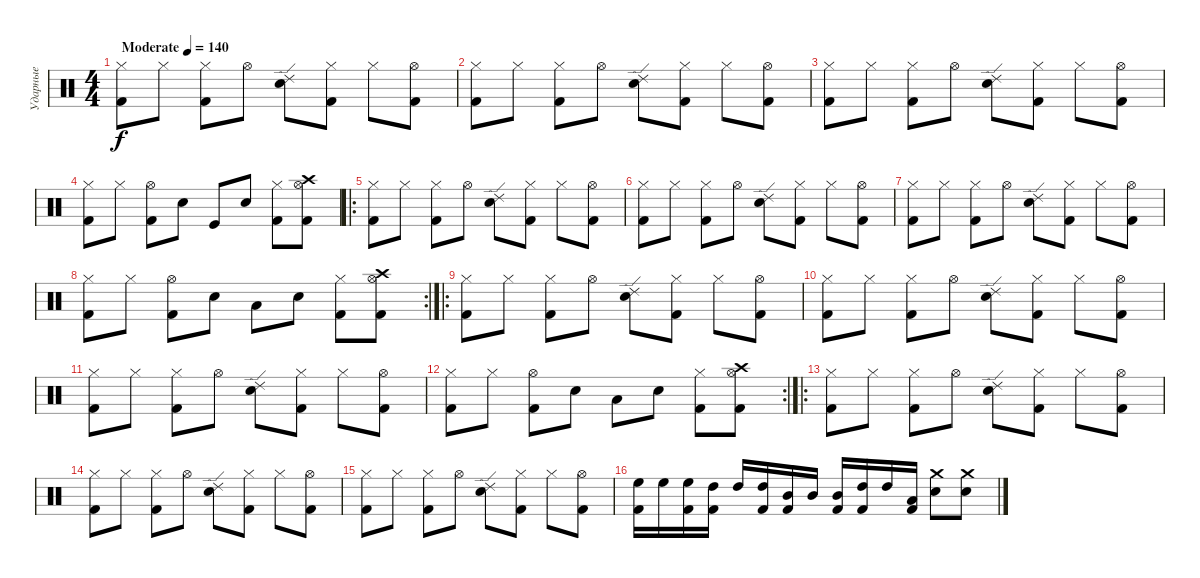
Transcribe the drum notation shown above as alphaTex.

\track ("Ударные" "Ударные") {instrument percussion}
\staff {score}
\articulation defaults
\ts (4 4)
\tempo (140 "Moderate")
\clef neutral
\ks c
("Hi-Hat (closed)" "Kick (hit) 2").8{dy f} "Hi-Hat (closed)".8 ("Hi-Hat (closed)" "Kick (hit) 2").8 "Hi-Hat (open)".8 ("Ride (edge) 2" "Snare (hit) 2").8 ("Hi-Hat (closed)" "Kick (hit) 2").8 "Hi-Hat (closed)".8 ("Hi-Hat (open)" "Kick (hit) 2").8 |
("Hi-Hat (closed)" "Kick (hit) 2").8 "Hi-Hat (closed)".8 ("Hi-Hat (closed)" "Kick (hit) 2").8 "Hi-Hat (open)".8 ("Ride (edge) 2" "Snare (hit) 2").8 ("Hi-Hat (closed)" "Kick (hit) 2").8 "Hi-Hat (closed)".8 ("Hi-Hat (open)" "Kick (hit) 2").8 |
("Hi-Hat (closed)" "Kick (hit) 2").8 "Hi-Hat (closed)".8 ("Hi-Hat (closed)" "Kick (hit) 2").8 "Hi-Hat (open)".8 ("Ride (edge) 2" "Snare (hit) 2").8 ("Hi-Hat (closed)" "Kick (hit) 2").8 "Hi-Hat (closed)".8 ("Hi-Hat (open)" "Kick (hit) 2").8 |
("Hi-Hat (closed)" "Kick (hit) 2").8 "Hi-Hat (closed)".8 ("Hi-Hat (open)" "Kick (hit) 2").8 "Snare (hit) 2".8 "Kick (hit)".8 "Electric Snare (hit)".8 ("Hi-Hat (closed)" "Kick (hit) 2").8 ("Hi-Hat (open)" "Crash high (hit)" "Kick (hit) 2").8 |
\ro
("Hi-Hat (closed)" "Kick (hit) 2").8 "Hi-Hat (closed)".8 ("Hi-Hat (closed)" "Kick (hit) 2").8 "Hi-Hat (open)".8 ("Ride (edge) 2" "Snare (hit) 2").8 ("Hi-Hat (closed)" "Kick (hit) 2").8 "Hi-Hat (closed)".8 ("Hi-Hat (open)" "Kick (hit) 2").8 |
("Hi-Hat (closed)" "Kick (hit) 2").8 "Hi-Hat (closed)".8 ("Hi-Hat (closed)" "Kick (hit) 2").8 "Hi-Hat (open)".8 ("Ride (edge) 2" "Snare (hit) 2").8 ("Hi-Hat (closed)" "Kick (hit) 2").8 "Hi-Hat (closed)".8 ("Hi-Hat (open)" "Kick (hit) 2").8 |
("Hi-Hat (closed)" "Kick (hit) 2").8 "Hi-Hat (closed)".8 ("Hi-Hat (closed)" "Kick (hit) 2").8 "Hi-Hat (open)".8 ("Ride (edge) 2" "Snare (hit) 2").8 ("Hi-Hat (closed)" "Kick (hit) 2").8 "Hi-Hat (closed)".8 ("Hi-Hat (open)" "Kick (hit) 2").8 |
\rc 2
("Hi-Hat (closed)" "Kick (hit) 2").8 "Hi-Hat (closed)".8 ("Hi-Hat (open)" "Kick (hit) 2").8 "Snare (hit) 2".8 "Low Floor Tom (hit)".8 "Electric Snare (hit)".8 ("Hi-Hat (closed)" "Kick (hit) 2").8 ("Hi-Hat (open)" "Crash high (hit)" "Kick (hit) 2").8 |
\ro
("Hi-Hat (closed)" "Kick (hit) 2").8 "Hi-Hat (closed)".8 ("Hi-Hat (closed)" "Kick (hit) 2").8 "Hi-Hat (open)".8 ("Ride (edge) 2" "Snare (hit) 2").8 ("Hi-Hat (closed)" "Kick (hit) 2").8 "Hi-Hat (closed)".8 ("Hi-Hat (open)" "Kick (hit) 2").8 |
("Hi-Hat (closed)" "Kick (hit) 2").8 "Hi-Hat (closed)".8 ("Hi-Hat (closed)" "Kick (hit) 2").8 "Hi-Hat (open)".8 ("Ride (edge) 2" "Snare (hit) 2").8 ("Hi-Hat (closed)" "Kick (hit) 2").8 "Hi-Hat (closed)".8 ("Hi-Hat (open)" "Kick (hit) 2").8 |
("Hi-Hat (closed)" "Kick (hit) 2").8 "Hi-Hat (closed)".8 ("Hi-Hat (closed)" "Kick (hit) 2").8 "Hi-Hat (open)".8 ("Ride (edge) 2" "Snare (hit) 2").8 ("Hi-Hat (closed)" "Kick (hit) 2").8 "Hi-Hat (closed)".8 ("Hi-Hat (open)" "Kick (hit) 2").8 |
\rc 2
("Hi-Hat (closed)" "Kick (hit) 2").8 "Hi-Hat (closed)".8 ("Hi-Hat (open)" "Kick (hit) 2").8 "Snare (hit) 2".8 "Low Floor Tom (hit)".8 "Electric Snare (hit)".8 ("Hi-Hat (closed)" "Kick (hit) 2").8 ("Hi-Hat (open)" "Crash high (hit)" "Kick (hit) 2").8 |
\ro
("Hi-Hat (closed)" "Kick (hit) 2").8 "Hi-Hat (closed)".8 ("Hi-Hat (closed)" "Kick (hit) 2").8 "Hi-Hat (open)".8 ("Ride (edge) 2" "Snare (hit) 2").8 ("Hi-Hat (closed)" "Kick (hit) 2").8 "Hi-Hat (closed)".8 ("Hi-Hat (open)" "Kick (hit) 2").8 |
("Hi-Hat (closed)" "Kick (hit) 2").8 "Hi-Hat (closed)".8 ("Hi-Hat (closed)" "Kick (hit) 2").8 "Hi-Hat (open)".8 ("Ride (edge) 2" "Snare (hit) 2").8 ("Hi-Hat (closed)" "Kick (hit) 2").8 "Hi-Hat (closed)".8 ("Hi-Hat (open)" "Kick (hit) 2").8 |
("Hi-Hat (closed)" "Kick (hit) 2").8 "Hi-Hat (closed)".8 ("Hi-Hat (closed)" "Kick (hit) 2").8 "Hi-Hat (open)".8 ("Ride (edge) 2" "Snare (hit) 2").8 ("Hi-Hat (closed)" "Kick (hit) 2").8 "Hi-Hat (closed)".8 ("Hi-Hat (open)" "Kick (hit) 2").8 |
("High Floor Tom (hit)" "Kick (hit) 2").16 "High Floor Tom (hit)".16 ("High Floor Tom (hit)" "Kick (hit) 2").16 ("High Tom (hit)" "Kick (hit) 2").16 "High Tom (hit)".16 ("High Tom (hit)" "Kick (hit) 2").16 ("Mid Tom (hit)" "Kick (hit) 2").16 "Mid Tom (hit)".16 ("Mid Tom (hit)" "Kick (hit) 2").16 ("High Tom (hit)" "Kick (hit) 2").16 "High Tom (hit)".16 ("Low Tom (hit)" "Kick (hit) 2").16 ("Crash medium (hit)" "Snare (hit) 2").8 ("Crash medium (hit)" "Snare (hit) 2").8
